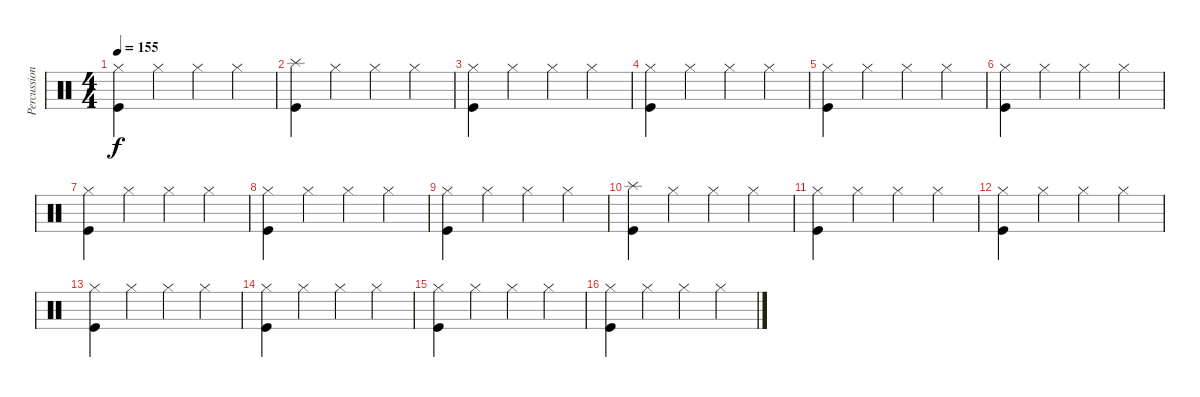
\track ("Percussions" "Percussion") {instrument percussion}
\staff {score}
\articulation defaults
\ts (4 4)
\tempo 155
\clef neutral
\ks c
("Hi-Hat (closed)" "Kick (hit)").4{dy f} "Hi-Hat (closed)".4 "Hi-Hat (closed)".4 "Hi-Hat (closed)".4 |
("Splash (hit)" "Kick (hit)").4 "Hi-Hat (closed)".4 "Hi-Hat (closed)".4 "Hi-Hat (closed)".4 |
("Hi-Hat (closed)" "Kick (hit)").4 "Hi-Hat (closed)".4 "Hi-Hat (closed)".4 "Hi-Hat (closed)".4 |
("Hi-Hat (closed)" "Kick (hit)").4 "Hi-Hat (closed)".4 "Hi-Hat (closed)".4 "Hi-Hat (closed)".4 |
("Hi-Hat (closed)" "Kick (hit)").4 "Hi-Hat (closed)".4 "Hi-Hat (closed)".4 "Hi-Hat (closed)".4 |
("Hi-Hat (closed)" "Kick (hit)").4 "Hi-Hat (closed)".4 "Hi-Hat (closed)".4 "Hi-Hat (closed)".4 |
("Hi-Hat (closed)" "Kick (hit)").4 "Hi-Hat (closed)".4 "Hi-Hat (closed)".4 "Hi-Hat (closed)".4 |
("Hi-Hat (closed)" "Kick (hit)").4 "Hi-Hat (closed)".4 "Hi-Hat (closed)".4 "Hi-Hat (closed)".4 |
("Hi-Hat (closed)" "Kick (hit)").4 "Hi-Hat (closed)".4 "Hi-Hat (closed)".4 "Hi-Hat (closed)".4 |
("Splash (hit)" "Kick (hit)").4 "Hi-Hat (closed)".4 "Hi-Hat (closed)".4 "Hi-Hat (closed)".4 |
("Hi-Hat (closed)" "Kick (hit)").4 "Hi-Hat (closed)".4 "Hi-Hat (closed)".4 "Hi-Hat (closed)".4 |
("Hi-Hat (closed)" "Kick (hit)").4 "Hi-Hat (closed)".4 "Hi-Hat (closed)".4 "Hi-Hat (closed)".4 |
("Hi-Hat (closed)" "Kick (hit)").4 "Hi-Hat (closed)".4 "Hi-Hat (closed)".4 "Hi-Hat (closed)".4 |
("Hi-Hat (closed)" "Kick (hit)").4 "Hi-Hat (closed)".4 "Hi-Hat (closed)".4 "Hi-Hat (closed)".4 |
("Hi-Hat (closed)" "Kick (hit)").4 "Hi-Hat (closed)".4 "Hi-Hat (closed)".4 "Hi-Hat (closed)".4 |
("Hi-Hat (closed)" "Kick (hit)").4 "Hi-Hat (closed)".4 "Hi-Hat (closed)".4 "Hi-Hat (closed)".4
